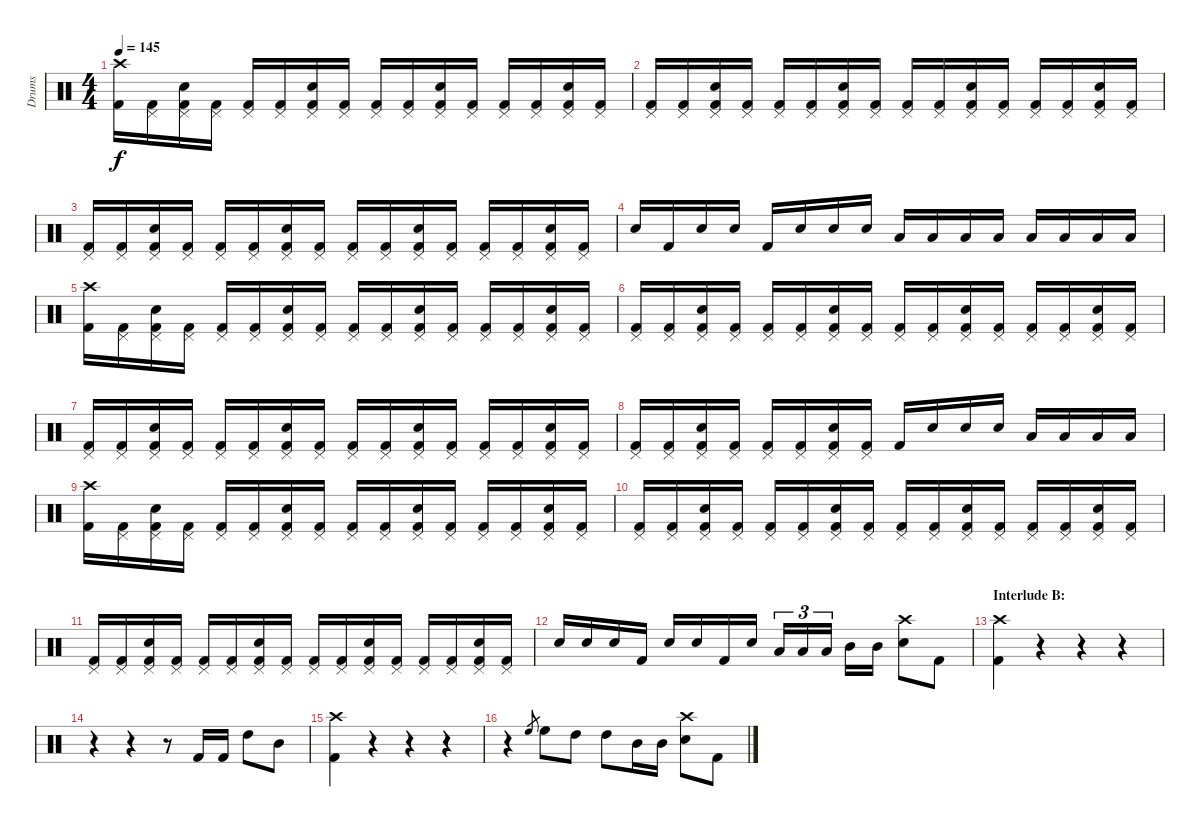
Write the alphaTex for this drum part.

\track ("Drums" "Drums") {instrument percussion}
\staff {score}
\articulation defaults
\ts (4 4)
\tempo 145
\clef neutral
\ks c
("Crash high (hit)" "Kick (hit) 2").16{dy f} ("Pedal Hi-Hat (hit)" "Kick (hit) 2").16 ("Pedal Hi-Hat (hit)" "Electric Snare (hit)" "Kick (hit) 2").16 ("Pedal Hi-Hat (hit)" "Kick (hit) 2").16 ("Pedal Hi-Hat (hit)" "Kick (hit) 2").16 ("Pedal Hi-Hat (hit)" "Kick (hit) 2").16 ("Pedal Hi-Hat (hit)" "Electric Snare (hit)" "Kick (hit) 2").16 ("Pedal Hi-Hat (hit)" "Kick (hit) 2").16 ("Pedal Hi-Hat (hit)" "Kick (hit) 2").16 ("Pedal Hi-Hat (hit)" "Kick (hit) 2").16 ("Pedal Hi-Hat (hit)" "Electric Snare (hit)" "Kick (hit) 2").16 ("Pedal Hi-Hat (hit)" "Kick (hit) 2").16 ("Pedal Hi-Hat (hit)" "Kick (hit) 2").16 ("Pedal Hi-Hat (hit)" "Kick (hit) 2").16 ("Pedal Hi-Hat (hit)" "Electric Snare (hit)" "Kick (hit) 2").16 ("Pedal Hi-Hat (hit)" "Kick (hit) 2").16 |
("Pedal Hi-Hat (hit)" "Kick (hit) 2").16 ("Pedal Hi-Hat (hit)" "Kick (hit) 2").16 ("Pedal Hi-Hat (hit)" "Electric Snare (hit)" "Kick (hit) 2").16 ("Pedal Hi-Hat (hit)" "Kick (hit) 2").16 ("Pedal Hi-Hat (hit)" "Kick (hit) 2").16 ("Pedal Hi-Hat (hit)" "Kick (hit) 2").16 ("Pedal Hi-Hat (hit)" "Electric Snare (hit)" "Kick (hit) 2").16 ("Pedal Hi-Hat (hit)" "Kick (hit) 2").16 ("Pedal Hi-Hat (hit)" "Kick (hit) 2").16 ("Pedal Hi-Hat (hit)" "Kick (hit) 2").16 ("Pedal Hi-Hat (hit)" "Electric Snare (hit)" "Kick (hit) 2").16 ("Pedal Hi-Hat (hit)" "Kick (hit) 2").16 ("Pedal Hi-Hat (hit)" "Kick (hit) 2").16 ("Pedal Hi-Hat (hit)" "Kick (hit) 2").16 ("Pedal Hi-Hat (hit)" "Electric Snare (hit)" "Kick (hit) 2").16 ("Pedal Hi-Hat (hit)" "Kick (hit) 2").16 |
("Pedal Hi-Hat (hit)" "Kick (hit) 2").16 ("Pedal Hi-Hat (hit)" "Kick (hit) 2").16 ("Pedal Hi-Hat (hit)" "Electric Snare (hit)" "Kick (hit) 2").16 ("Pedal Hi-Hat (hit)" "Kick (hit) 2").16 ("Pedal Hi-Hat (hit)" "Kick (hit) 2").16 ("Pedal Hi-Hat (hit)" "Kick (hit) 2").16 ("Pedal Hi-Hat (hit)" "Electric Snare (hit)" "Kick (hit) 2").16 ("Pedal Hi-Hat (hit)" "Kick (hit) 2").16 ("Pedal Hi-Hat (hit)" "Kick (hit) 2").16 ("Pedal Hi-Hat (hit)" "Kick (hit) 2").16 ("Pedal Hi-Hat (hit)" "Electric Snare (hit)" "Kick (hit) 2").16 ("Pedal Hi-Hat (hit)" "Kick (hit) 2").16 ("Pedal Hi-Hat (hit)" "Kick (hit) 2").16 ("Pedal Hi-Hat (hit)" "Kick (hit) 2").16 ("Pedal Hi-Hat (hit)" "Electric Snare (hit)" "Kick (hit) 2").16 ("Pedal Hi-Hat (hit)" "Kick (hit) 2").16 |
"Electric Snare (hit)".16 "Kick (hit) 2".16 "Electric Snare (hit)".16 "Electric Snare (hit)".16 "Kick (hit) 2".16 "Electric Snare (hit)".16 "Electric Snare (hit)".16 "Electric Snare (hit)".16 "Low Tom (hit)".16 "Low Tom (hit)".16 "Low Tom (hit)".16 "Low Tom (hit)".16 "Low Tom (hit)".16 "Low Tom (hit)".16 "Low Tom (hit)".16 "Low Tom (hit)".16 |
("Crash high (hit)" "Kick (hit) 2").16 ("Pedal Hi-Hat (hit)" "Kick (hit) 2").16 ("Pedal Hi-Hat (hit)" "Electric Snare (hit)" "Kick (hit) 2").16 ("Pedal Hi-Hat (hit)" "Kick (hit) 2").16 ("Pedal Hi-Hat (hit)" "Kick (hit) 2").16 ("Pedal Hi-Hat (hit)" "Kick (hit) 2").16 ("Pedal Hi-Hat (hit)" "Electric Snare (hit)" "Kick (hit) 2").16 ("Pedal Hi-Hat (hit)" "Kick (hit) 2").16 ("Pedal Hi-Hat (hit)" "Kick (hit) 2").16 ("Pedal Hi-Hat (hit)" "Kick (hit) 2").16 ("Pedal Hi-Hat (hit)" "Electric Snare (hit)" "Kick (hit) 2").16 ("Pedal Hi-Hat (hit)" "Kick (hit) 2").16 ("Pedal Hi-Hat (hit)" "Kick (hit) 2").16 ("Pedal Hi-Hat (hit)" "Kick (hit) 2").16 ("Pedal Hi-Hat (hit)" "Electric Snare (hit)" "Kick (hit) 2").16 ("Pedal Hi-Hat (hit)" "Kick (hit) 2").16 |
("Pedal Hi-Hat (hit)" "Kick (hit) 2").16 ("Pedal Hi-Hat (hit)" "Kick (hit) 2").16 ("Pedal Hi-Hat (hit)" "Electric Snare (hit)" "Kick (hit) 2").16 ("Pedal Hi-Hat (hit)" "Kick (hit) 2").16 ("Pedal Hi-Hat (hit)" "Kick (hit) 2").16 ("Pedal Hi-Hat (hit)" "Kick (hit) 2").16 ("Pedal Hi-Hat (hit)" "Electric Snare (hit)" "Kick (hit) 2").16 ("Pedal Hi-Hat (hit)" "Kick (hit) 2").16 ("Pedal Hi-Hat (hit)" "Kick (hit) 2").16 ("Pedal Hi-Hat (hit)" "Kick (hit) 2").16 ("Pedal Hi-Hat (hit)" "Electric Snare (hit)" "Kick (hit) 2").16 ("Pedal Hi-Hat (hit)" "Kick (hit) 2").16 ("Pedal Hi-Hat (hit)" "Kick (hit) 2").16 ("Pedal Hi-Hat (hit)" "Kick (hit) 2").16 ("Pedal Hi-Hat (hit)" "Electric Snare (hit)" "Kick (hit) 2").16 ("Pedal Hi-Hat (hit)" "Kick (hit) 2").16 |
("Pedal Hi-Hat (hit)" "Kick (hit) 2").16 ("Pedal Hi-Hat (hit)" "Kick (hit) 2").16 ("Pedal Hi-Hat (hit)" "Electric Snare (hit)" "Kick (hit) 2").16 ("Pedal Hi-Hat (hit)" "Kick (hit) 2").16 ("Pedal Hi-Hat (hit)" "Kick (hit) 2").16 ("Pedal Hi-Hat (hit)" "Kick (hit) 2").16 ("Pedal Hi-Hat (hit)" "Electric Snare (hit)" "Kick (hit) 2").16 ("Pedal Hi-Hat (hit)" "Kick (hit) 2").16 ("Pedal Hi-Hat (hit)" "Kick (hit) 2").16 ("Pedal Hi-Hat (hit)" "Kick (hit) 2").16 ("Pedal Hi-Hat (hit)" "Electric Snare (hit)" "Kick (hit) 2").16 ("Pedal Hi-Hat (hit)" "Kick (hit) 2").16 ("Pedal Hi-Hat (hit)" "Kick (hit) 2").16 ("Pedal Hi-Hat (hit)" "Kick (hit) 2").16 ("Pedal Hi-Hat (hit)" "Electric Snare (hit)" "Kick (hit) 2").16 ("Pedal Hi-Hat (hit)" "Kick (hit) 2").16 |
("Pedal Hi-Hat (hit)" "Kick (hit) 2").16 ("Pedal Hi-Hat (hit)" "Kick (hit) 2").16 ("Pedal Hi-Hat (hit)" "Electric Snare (hit)" "Kick (hit) 2").16 ("Pedal Hi-Hat (hit)" "Kick (hit) 2").16 ("Pedal Hi-Hat (hit)" "Kick (hit) 2").16 ("Pedal Hi-Hat (hit)" "Kick (hit) 2").16 ("Pedal Hi-Hat (hit)" "Electric Snare (hit)" "Kick (hit) 2").16 ("Pedal Hi-Hat (hit)" "Kick (hit) 2").16 "Kick (hit) 2".16 "Electric Snare (hit)".16 "Electric Snare (hit)".16 "Electric Snare (hit)".16 "Low Tom (hit)".16 "Low Tom (hit)".16 "Low Tom (hit)".16 "Low Tom (hit)".16 |
("Crash high (hit)" "Kick (hit) 2").16 ("Pedal Hi-Hat (hit)" "Kick (hit) 2").16 ("Pedal Hi-Hat (hit)" "Electric Snare (hit)" "Kick (hit) 2").16 ("Pedal Hi-Hat (hit)" "Kick (hit) 2").16 ("Pedal Hi-Hat (hit)" "Kick (hit) 2").16 ("Pedal Hi-Hat (hit)" "Kick (hit) 2").16 ("Pedal Hi-Hat (hit)" "Electric Snare (hit)" "Kick (hit) 2").16 ("Pedal Hi-Hat (hit)" "Kick (hit) 2").16 ("Pedal Hi-Hat (hit)" "Kick (hit) 2").16 ("Pedal Hi-Hat (hit)" "Kick (hit) 2").16 ("Pedal Hi-Hat (hit)" "Electric Snare (hit)" "Kick (hit) 2").16 ("Pedal Hi-Hat (hit)" "Kick (hit) 2").16 ("Pedal Hi-Hat (hit)" "Kick (hit) 2").16 ("Pedal Hi-Hat (hit)" "Kick (hit) 2").16 ("Pedal Hi-Hat (hit)" "Electric Snare (hit)" "Kick (hit) 2").16 ("Pedal Hi-Hat (hit)" "Kick (hit) 2").16 |
("Pedal Hi-Hat (hit)" "Kick (hit) 2").16 ("Pedal Hi-Hat (hit)" "Kick (hit) 2").16 ("Pedal Hi-Hat (hit)" "Electric Snare (hit)" "Kick (hit) 2").16 ("Pedal Hi-Hat (hit)" "Kick (hit) 2").16 ("Pedal Hi-Hat (hit)" "Kick (hit) 2").16 ("Pedal Hi-Hat (hit)" "Kick (hit) 2").16 ("Pedal Hi-Hat (hit)" "Electric Snare (hit)" "Kick (hit) 2").16 ("Pedal Hi-Hat (hit)" "Kick (hit) 2").16 ("Pedal Hi-Hat (hit)" "Kick (hit) 2").16 ("Pedal Hi-Hat (hit)" "Kick (hit) 2").16 ("Pedal Hi-Hat (hit)" "Electric Snare (hit)" "Kick (hit) 2").16 ("Pedal Hi-Hat (hit)" "Kick (hit) 2").16 ("Pedal Hi-Hat (hit)" "Kick (hit) 2").16 ("Pedal Hi-Hat (hit)" "Kick (hit) 2").16 ("Pedal Hi-Hat (hit)" "Electric Snare (hit)" "Kick (hit) 2").16 ("Pedal Hi-Hat (hit)" "Kick (hit) 2").16 |
("Pedal Hi-Hat (hit)" "Kick (hit) 2").16 ("Pedal Hi-Hat (hit)" "Kick (hit) 2").16 ("Pedal Hi-Hat (hit)" "Electric Snare (hit)" "Kick (hit) 2").16 ("Pedal Hi-Hat (hit)" "Kick (hit) 2").16 ("Pedal Hi-Hat (hit)" "Kick (hit) 2").16 ("Pedal Hi-Hat (hit)" "Kick (hit) 2").16 ("Pedal Hi-Hat (hit)" "Electric Snare (hit)" "Kick (hit) 2").16 ("Pedal Hi-Hat (hit)" "Kick (hit) 2").16 ("Pedal Hi-Hat (hit)" "Kick (hit) 2").16 ("Pedal Hi-Hat (hit)" "Kick (hit) 2").16 ("Pedal Hi-Hat (hit)" "Electric Snare (hit)" "Kick (hit) 2").16 ("Pedal Hi-Hat (hit)" "Kick (hit) 2").16 ("Pedal Hi-Hat (hit)" "Kick (hit) 2").16 ("Pedal Hi-Hat (hit)" "Kick (hit) 2").16 ("Pedal Hi-Hat (hit)" "Electric Snare (hit)" "Kick (hit) 2").16 ("Pedal Hi-Hat (hit)" "Kick (hit) 2").16 |
"Electric Snare (hit)".16 "Electric Snare (hit)".16 "Electric Snare (hit)".16 "Kick (hit) 2".16 "Electric Snare (hit)".16 "Electric Snare (hit)".16 "Kick (hit) 2".16 "Electric Snare (hit)".16 "Low Tom (hit)".16{tu (3 2)} "Low Tom (hit)".16{tu (3 2)} "Low Tom (hit)".16{tu (3 2)} "Mid Tom (hit)".16 "Mid Tom (hit)".16 ("Crash high (hit)" "Electric Snare (hit)").8 "Kick (hit) 2".8 |
\section ("" "Interlude B:")
("Crash high (hit)" "Kick (hit) 2").4 r.4 r.4 r.4 |
r.4 r.4 r.8 "Kick (hit) 2".16 "Kick (hit) 2".16 "High Tom (hit)".8 "Mid Tom (hit)".8 |
("Crash high (hit)" "Kick (hit) 2").4 r.4 r.4 r.4 |
r.4 "High Floor Tom (hit)".8{gr} "High Floor Tom (hit)".8 "High Tom (hit)".8 "High Tom (hit)".8 "Mid Tom (hit)".16 "Mid Tom (hit)".16 ("Crash high (hit)" "Electric Snare (hit)").8 "Kick (hit) 2".8
